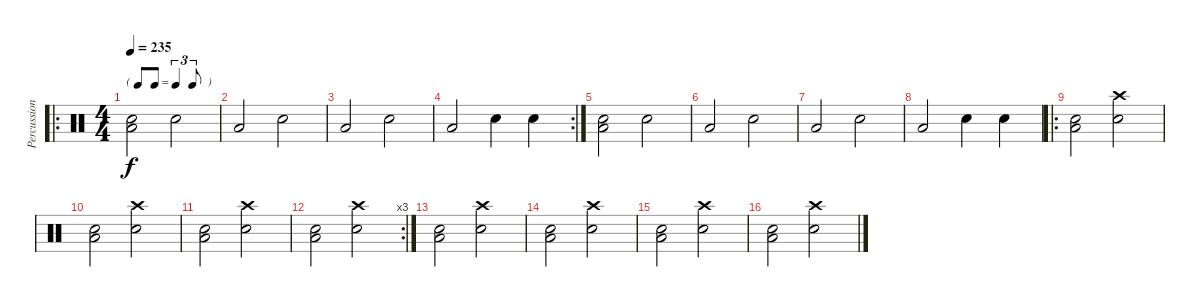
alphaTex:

\track ("Percussions" "Percussion") {instrument percussion}
\staff {score}
\articulation defaults
\ro
\ts (4 4)
\tf triplet8th
\tempo 235
\clef neutral
\ks c
("Snare (hit)" "Low Tom (hit)").2{dy f} "Snare (hit) 2".2 |
"Low Tom (hit)".2 "Snare (hit) 2".2 |
"Low Tom (hit)".2 "Snare (hit) 2".2 |
\rc 2 "Low Tom (hit)".2 "Snare (hit) 2".4 "Snare (hit) 2".4
|
("Snare (hit)" "Low Tom (hit)").2 "Snare (hit) 2".2 |
"Low Tom (hit)".2 "Snare (hit) 2".2 |
"Low Tom (hit)".2 "Snare (hit) 2".2 |
"Low Tom (hit)".2 "Snare (hit) 2".4 "Snare (hit) 2".4 |
\ro
("Low Tom (hit)" "Snare (hit) 2").2 ("Snare (hit) 2" "Crash high (hit)").2 |
("Low Tom (hit)" "Snare (hit) 2").2 ("Snare (hit) 2" "Crash high (hit)").2 |
("Low Tom (hit)" "Snare (hit) 2").2 ("Snare (hit) 2" "Crash high (hit)").2 |
\rc 3
("Low Tom (hit)" "Snare (hit) 2").2 ("Snare (hit) 2" "Crash high (hit)").2 |
("Low Tom (hit)" "Snare (hit) 2").2 ("Snare (hit) 2" "Crash high (hit)").2 |
("Low Tom (hit)" "Snare (hit) 2").2 ("Snare (hit) 2" "Crash high (hit)").2 |
("Low Tom (hit)" "Snare (hit) 2").2 ("Snare (hit) 2" "Crash high (hit)").2 |
("Low Tom (hit)" "Snare (hit) 2").2 ("Snare (hit) 2" "Crash high (hit)").2
